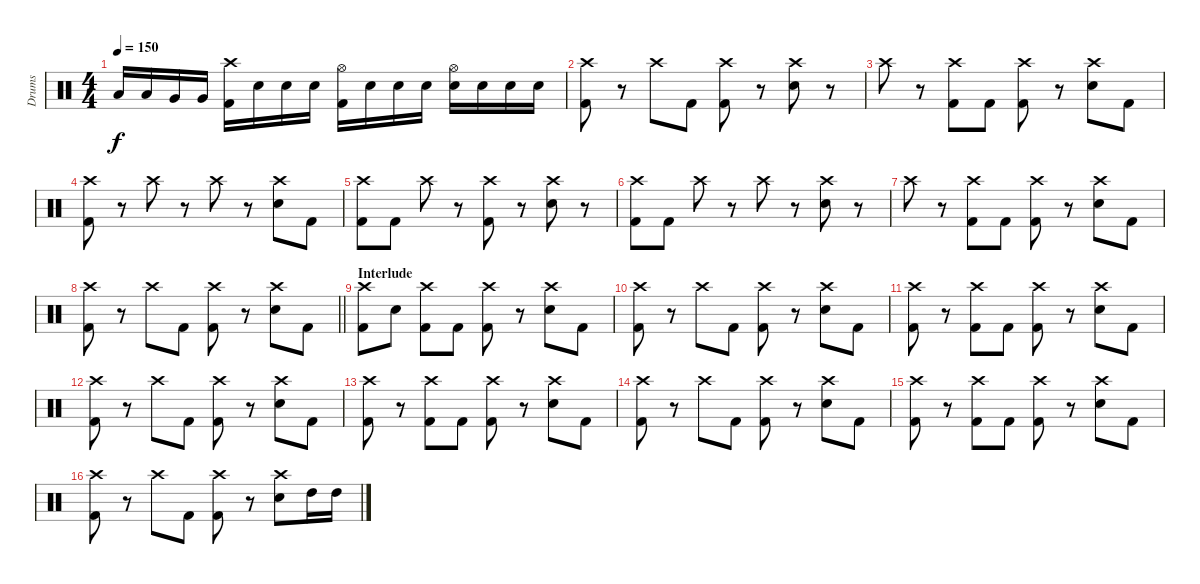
\track ("Drums" "Drums") {instrument percussion}
\staff {score}
\articulation defaults
\ts (4 4)
\tempo 150
\clef neutral
\ks c "Low Tom (hit)".16{dy f} "Low Tom (hit)".16 "Very Low Tom (hit)".16 "Very Low Tom (hit)".16
("Kick (hit) 2" "Crash high (hit)").16 "Snare (hit) 2".16 "Snare (hit) 2".16 "Snare (hit) 2".16 ("Kick (hit) 2" "Hi-Hat (open)").16 "Snare (hit) 2".16 "Snare (hit) 2".16 "Snare (hit) 2".16 ("Hi-Hat (open)" "Snare (hit) 2").16 "Snare (hit) 2".16 "Snare (hit) 2".16 "Snare (hit) 2".16 |
("Kick (hit) 2" "Crash high (hit)").8 r.8 "Crash high (hit)".8 "Kick (hit) 2".8 ("Kick (hit) 2" "Crash high (hit)").8 r.8 ("Crash high (hit)" "Snare (hit) 2").8 r.8 |
"Crash high (hit)".8 r.8 ("Kick (hit) 2" "Crash high (hit)").8 "Kick (hit) 2".8 ("Kick (hit) 2" "Crash high (hit)").8 r.8 ("Crash high (hit)" "Snare (hit) 2").8 "Kick (hit) 2".8 |
("Kick (hit) 2" "Crash high (hit)").8 r.8 "Crash high (hit)".8 r.8 "Crash high (hit)".8 r.8 ("Crash high (hit)" "Snare (hit) 2").8 "Kick (hit) 2".8 |
("Kick (hit) 2" "Crash high (hit)").8 "Kick (hit) 2".8 "Crash high (hit)".8 r.8 ("Kick (hit) 2" "Crash high (hit)").8 r.8 ("Crash high (hit)" "Snare (hit) 2").8 r.8 |
("Kick (hit) 2" "Crash high (hit)").8 "Kick (hit) 2".8 "Crash high (hit)".8 r.8 "Crash high (hit)".8 r.8 ("Crash high (hit)" "Snare (hit) 2").8 r.8 |
"Crash high (hit)".8 r.8 ("Kick (hit) 2" "Crash high (hit)").8 "Kick (hit) 2".8 ("Kick (hit) 2" "Crash high (hit)").8 r.8 ("Crash high (hit)" "Snare (hit) 2").8 "Kick (hit) 2".8 |
\barLineRight lightlight
("Kick (hit) 2" "Crash high (hit)").8 r.8 "Crash high (hit)".8 "Kick (hit) 2".8 ("Kick (hit) 2" "Crash high (hit)").8 r.8 ("Crash high (hit)" "Snare (hit) 2").8 "Kick (hit) 2".8 |
\section ("" "Interlude")
("Kick (hit) 2" "Crash high (hit)").8 "Snare (hit) 2".8 ("Kick (hit) 2" "Crash high (hit)").8 "Kick (hit) 2".8 ("Kick (hit) 2" "Crash high (hit)").8 r.8 ("Crash high (hit)" "Snare (hit) 2").8 "Kick (hit) 2".8 |
("Kick (hit) 2" "Crash high (hit)").8 r.8 "Crash high (hit)".8 "Kick (hit) 2".8 ("Kick (hit) 2" "Crash high (hit)").8 r.8 ("Crash high (hit)" "Snare (hit) 2").8 "Kick (hit) 2".8 |
("Kick (hit) 2" "Crash high (hit)").8 r.8 ("Kick (hit) 2" "Crash high (hit)").8 "Kick (hit) 2".8 ("Kick (hit) 2" "Crash high (hit)").8 r.8 ("Crash high (hit)" "Snare (hit) 2").8 "Kick (hit) 2".8 |
("Kick (hit) 2" "Crash high (hit)").8 r.8 "Crash high (hit)".8 "Kick (hit) 2".8 ("Kick (hit) 2" "Crash high (hit)").8 r.8 ("Crash high (hit)" "Snare (hit) 2").8 "Kick (hit) 2".8 |
("Kick (hit) 2" "Crash high (hit)").8 r.8 ("Kick (hit) 2" "Crash high (hit)").8 "Kick (hit) 2".8 ("Kick (hit) 2" "Crash high (hit)").8 r.8 ("Crash high (hit)" "Snare (hit) 2").8 "Kick (hit) 2".8 |
("Kick (hit) 2" "Crash high (hit)").8 r.8 "Crash high (hit)".8 "Kick (hit) 2".8 ("Kick (hit) 2" "Crash high (hit)").8 r.8 ("Crash high (hit)" "Snare (hit) 2").8 "Kick (hit) 2".8 |
("Kick (hit) 2" "Crash high (hit)").8 r.8 ("Kick (hit) 2" "Crash high (hit)").8 "Kick (hit) 2".8 ("Kick (hit) 2" "Crash high (hit)").8 r.8 ("Crash high (hit)" "Snare (hit) 2").8 "Kick (hit) 2".8 |
("Kick (hit) 2" "Crash high (hit)").8 r.8 "Crash high (hit)".8 "Kick (hit) 2".8 ("Kick (hit) 2" "Crash high (hit)").8 r.8 ("Crash high (hit)" "Snare (hit) 2").8 "High Tom (hit)".16 "High Tom (hit)".16
